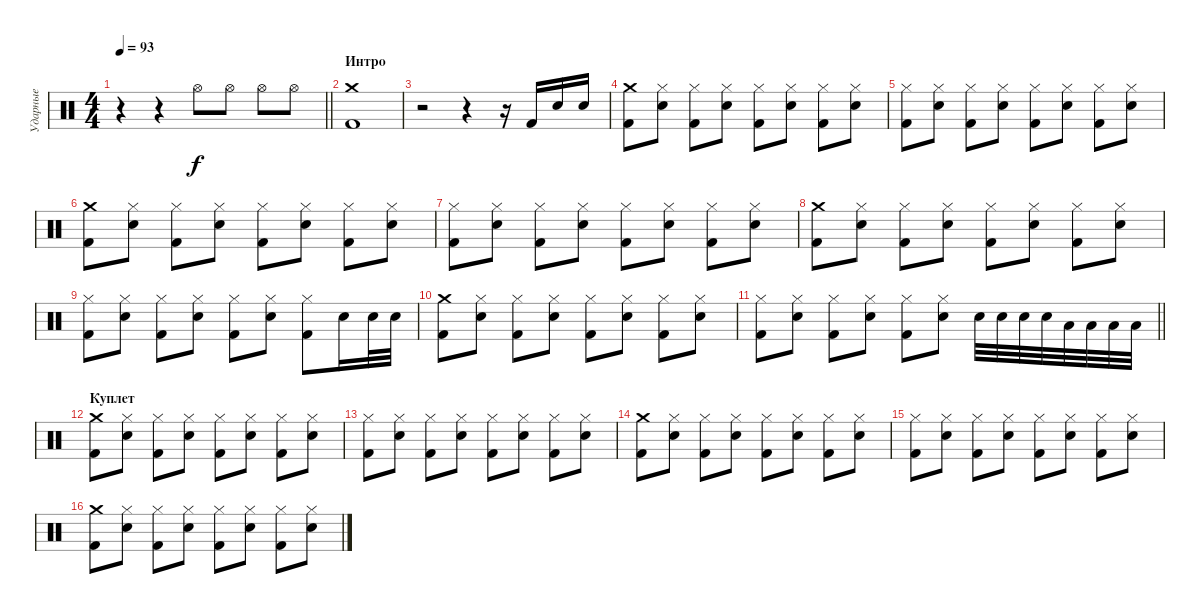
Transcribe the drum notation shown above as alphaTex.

\track ("Ударные" "Ударные") {instrument percussion}
\staff {score}
\articulation defaults
\ts (4 4)
\tempo 93
\clef neutral
\barLineRight lightlight
\ks c
r.4{dy f} r.4 "Hi-Hat (open)".8 "Hi-Hat (open)".8 "Hi-Hat (open)".8 "Hi-Hat (open)".8 |
\section ("" "Интро")
("Crash medium (hit)" "Kick (hit) 2").1 |
r.2 r.4 r.16 "Kick (hit) 2".16 "Electric Snare (hit)".16 "Electric Snare (hit)".16 |
("Kick (hit) 2" "Crash medium (hit)").8 ("Electric Snare (hit)" "Hi-Hat (closed)").8 ("Kick (hit) 2" "Hi-Hat (closed)").8 ("Electric Snare (hit)" "Hi-Hat (closed)").8 ("Kick (hit) 2" "Hi-Hat (closed)").8 ("Electric Snare (hit)" "Hi-Hat (closed)").8 ("Kick (hit) 2" "Hi-Hat (closed)").8 ("Electric Snare (hit)" "Hi-Hat (closed)").8 |
("Kick (hit) 2" "Hi-Hat (closed)").8 ("Electric Snare (hit)" "Hi-Hat (closed)").8 ("Kick (hit) 2" "Hi-Hat (closed)").8 ("Electric Snare (hit)" "Hi-Hat (closed)").8 ("Kick (hit) 2" "Hi-Hat (closed)").8 ("Electric Snare (hit)" "Hi-Hat (closed)").8 ("Kick (hit) 2" "Hi-Hat (closed)").8 ("Electric Snare (hit)" "Hi-Hat (closed)").8 |
("Kick (hit) 2" "Crash medium (hit)").8 ("Electric Snare (hit)" "Hi-Hat (closed)").8 ("Kick (hit) 2" "Hi-Hat (closed)").8 ("Electric Snare (hit)" "Hi-Hat (closed)").8 ("Kick (hit) 2" "Hi-Hat (closed)").8 ("Electric Snare (hit)" "Hi-Hat (closed)").8 ("Kick (hit) 2" "Hi-Hat (closed)").8 ("Electric Snare (hit)" "Hi-Hat (closed)").8 |
("Kick (hit) 2" "Hi-Hat (closed)").8 ("Electric Snare (hit)" "Hi-Hat (closed)").8 ("Kick (hit) 2" "Hi-Hat (closed)").8 ("Electric Snare (hit)" "Hi-Hat (closed)").8 ("Kick (hit) 2" "Hi-Hat (closed)").8 ("Electric Snare (hit)" "Hi-Hat (closed)").8 ("Kick (hit) 2" "Hi-Hat (closed)").8 ("Electric Snare (hit)" "Hi-Hat (closed)").8 |
("Kick (hit) 2" "Crash medium (hit)").8 ("Electric Snare (hit)" "Hi-Hat (closed)").8 ("Kick (hit) 2" "Hi-Hat (closed)").8 ("Electric Snare (hit)" "Hi-Hat (closed)").8 ("Kick (hit) 2" "Hi-Hat (closed)").8 ("Electric Snare (hit)" "Hi-Hat (closed)").8 ("Kick (hit) 2" "Hi-Hat (closed)").8 ("Electric Snare (hit)" "Hi-Hat (closed)").8 |
("Kick (hit) 2" "Hi-Hat (closed)").8 ("Electric Snare (hit)" "Hi-Hat (closed)").8 ("Kick (hit) 2" "Hi-Hat (closed)").8 ("Electric Snare (hit)" "Hi-Hat (closed)").8 ("Kick (hit) 2" "Hi-Hat (closed)").8 ("Electric Snare (hit)" "Hi-Hat (closed)").8 ("Kick (hit) 2" "Hi-Hat (closed)").8 "Electric Snare (hit)".16 "Electric Snare (hit)".32 "Electric Snare (hit)".32 |
("Kick (hit) 2" "Crash medium (hit)").8 ("Electric Snare (hit)" "Hi-Hat (closed)").8 ("Kick (hit) 2" "Hi-Hat (closed)").8 ("Electric Snare (hit)" "Hi-Hat (closed)").8 ("Kick (hit) 2" "Hi-Hat (closed)").8 ("Electric Snare (hit)" "Hi-Hat (closed)").8 ("Kick (hit) 2" "Hi-Hat (closed)").8 ("Electric Snare (hit)" "Hi-Hat (closed)").8 |
\barLineRight lightlight
("Kick (hit) 2" "Hi-Hat (closed)").8 ("Electric Snare (hit)" "Hi-Hat (closed)").8 ("Kick (hit) 2" "Hi-Hat (closed)").8 ("Electric Snare (hit)" "Hi-Hat (closed)").8 ("Kick (hit) 2" "Hi-Hat (closed)").8 ("Electric Snare (hit)" "Hi-Hat (closed)").8 "Electric Snare (hit)".32 "Electric Snare (hit)".32 "Electric Snare (hit)".32 "Electric Snare (hit)".32 "Low Tom (hit)".32 "Low Tom (hit)".32 "Low Tom (hit)".32 "Low Tom (hit)".32 |
\section ("" "Куплет")
("Kick (hit) 2" "Crash medium (hit)").8 ("Electric Snare (hit)" "Hi-Hat (closed)").8 ("Kick (hit) 2" "Hi-Hat (closed)").8 ("Electric Snare (hit)" "Hi-Hat (closed)").8 ("Kick (hit) 2" "Hi-Hat (closed)").8 ("Electric Snare (hit)" "Hi-Hat (closed)").8 ("Kick (hit) 2" "Hi-Hat (closed)").8 ("Electric Snare (hit)" "Hi-Hat (closed)").8 |
("Kick (hit) 2" "Hi-Hat (closed)").8 ("Electric Snare (hit)" "Hi-Hat (closed)").8 ("Kick (hit) 2" "Hi-Hat (closed)").8 ("Electric Snare (hit)" "Hi-Hat (closed)").8 ("Kick (hit) 2" "Hi-Hat (closed)").8 ("Electric Snare (hit)" "Hi-Hat (closed)").8 ("Kick (hit) 2" "Hi-Hat (closed)").8 ("Electric Snare (hit)" "Hi-Hat (closed)").8 |
("Kick (hit) 2" "Crash medium (hit)").8 ("Electric Snare (hit)" "Hi-Hat (closed)").8 ("Kick (hit) 2" "Hi-Hat (closed)").8 ("Electric Snare (hit)" "Hi-Hat (closed)").8 ("Kick (hit) 2" "Hi-Hat (closed)").8 ("Electric Snare (hit)" "Hi-Hat (closed)").8 ("Kick (hit) 2" "Hi-Hat (closed)").8 ("Electric Snare (hit)" "Hi-Hat (closed)").8 |
("Kick (hit) 2" "Hi-Hat (closed)").8 ("Electric Snare (hit)" "Hi-Hat (closed)").8 ("Kick (hit) 2" "Hi-Hat (closed)").8 ("Electric Snare (hit)" "Hi-Hat (closed)").8 ("Kick (hit) 2" "Hi-Hat (closed)").8 ("Electric Snare (hit)" "Hi-Hat (closed)").8 ("Kick (hit) 2" "Hi-Hat (closed)").8 ("Electric Snare (hit)" "Hi-Hat (closed)").8 |
("Kick (hit) 2" "Crash medium (hit)").8 ("Electric Snare (hit)" "Hi-Hat (closed)").8 ("Kick (hit) 2" "Hi-Hat (closed)").8 ("Electric Snare (hit)" "Hi-Hat (closed)").8 ("Kick (hit) 2" "Hi-Hat (closed)").8 ("Electric Snare (hit)" "Hi-Hat (closed)").8 ("Kick (hit) 2" "Hi-Hat (closed)").8 ("Electric Snare (hit)" "Hi-Hat (closed)").8
